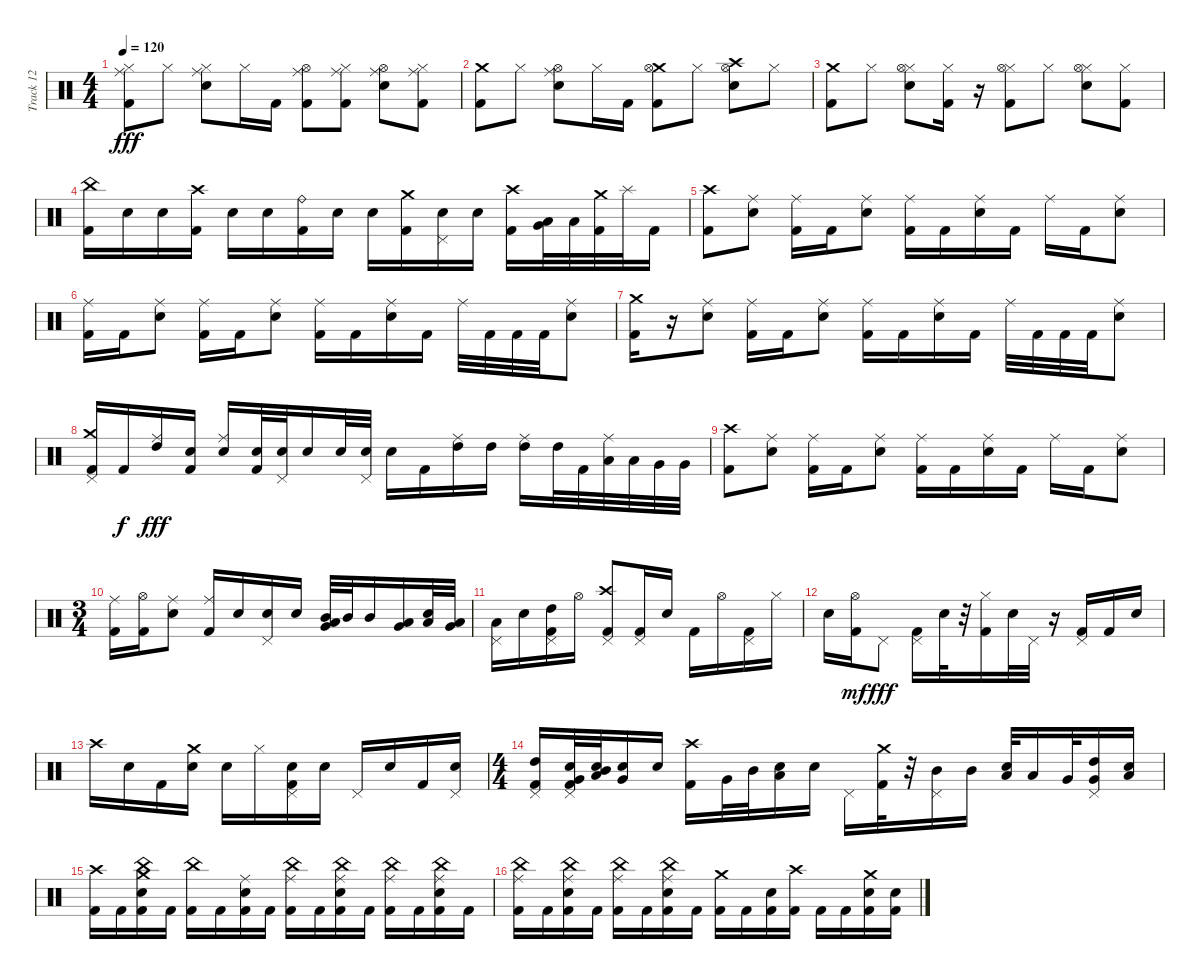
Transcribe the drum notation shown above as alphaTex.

\track ("Track 12" "Track 12") {instrument percussion}
\staff {score}
\articulation defaults
\ts (4 4)
\tempo 120
\clef neutral
\ks c
("Hi-Hat (closed)" "Ride (middle)" "Kick (hit) 2").8{dy fff} "Hi-Hat (closed)".8 ("Hi-Hat (closed)" "Ride (middle)" "Snare (hit) 2").8 "Hi-Hat (closed)".16 "Kick (hit) 2".16 ("Hi-Hat (open)" "Ride (middle)" "Kick (hit) 2").8 ("Hi-Hat (closed)" "Ride (middle)" "Kick (hit) 2").8 ("Hi-Hat (open)" "Ride (middle)" "Snare (hit) 2").8 ("Hi-Hat (closed)" "Ride (middle)" "Kick (hit) 2").8 |
("Crash medium (hit)" "Kick (hit) 2").8 "Hi-Hat (closed)".8 ("Ride (middle)" "Hi-Hat (open)" "Snare (hit) 2").8 "Hi-Hat (closed)".16 "Kick (hit) 2".16 ("Crash medium (hit)" "Hi-Hat (open)" "Kick (hit) 2").8 "Hi-Hat (closed)".8 ("Crash high (hit)" "Hi-Hat (open)" "Snare (hit) 2").8 "Hi-Hat (closed)".8 |
("Crash medium (hit)" "Kick (hit) 2").8 "Hi-Hat (closed)".8 ("Hi-Hat (closed)" "Hi-Hat (open)" "Snare (hit) 2").8 ("Hi-Hat (closed)" "Kick (hit) 2").16 r.16 ("Hi-Hat (closed)" "Hi-Hat (open)" "Kick (hit) 2").8 "Hi-Hat (closed)".8 ("Hi-Hat (closed)" "Hi-Hat (open)" "Snare (hit) 2").8 ("Hi-Hat (closed)" "Kick (hit) 2").8 |
("China (hit)" "Kick (hit) 2").16 "Snare (hit) 2".16 "Snare (hit) 2".16 ("Crash high (hit)" "Kick (hit) 2").16 "Snare (hit) 2".16 "Electric Snare (hit)".16 ("Ride (bell)" "Kick (hit) 2").16 "Snare (hit) 2".16 "Electric Snare (hit)".16 ("Crash medium (hit)" "Kick (hit) 2").16 ("Pedal Hi-Hat (hit)" "Snare (hit) 2").16 "Electric Snare (hit)".16 ("Crash high (hit)" "Kick (hit) 2").16 ("Low Tom (hit)" "Very Low Tom (hit)").32 "Low Floor Tom (hit)".32 ("Crash medium (hit)" "Kick (hit) 2").32 "Splash (hit)".32 "Kick (hit) 2".16 |
("Crash high (hit)" "Kick (hit) 2").8 ("Ride (middle)" "Snare (hit) 2").8 ("Ride (middle)" "Kick (hit) 2").16 "Kick (hit) 2".16 ("Ride (middle)" "Snare (hit) 2").8 ("Ride (middle)" "Kick (hit) 2").16 "Kick (hit) 2".16 ("Ride (middle)" "Snare (hit) 2").16 "Kick (hit) 2".16 "Ride (middle)".16 "Kick (hit) 2".16 ("Ride (middle)" "Snare (hit) 2").8 |
("Ride (middle)" "Kick (hit) 2").16 "Kick (hit) 2".16 ("Ride (middle)" "Snare (hit) 2").8 ("Ride (middle)" "Kick (hit) 2").16 "Kick (hit) 2".16 ("Ride (middle)" "Snare (hit) 2").8 ("Ride (middle)" "Kick (hit) 2").16 "Kick (hit) 2".16 ("Ride (middle)" "Snare (hit) 2").16 "Kick (hit) 2".16 "Ride (middle)".32 "Kick (hit) 2".32 "Kick (hit) 2".32 "Kick (hit) 2".32 ("Ride (middle)" "Snare (hit) 2").8 |
("Crash medium (hit)" "Kick (hit) 2").16 r.16 ("Ride (middle)" "Snare (hit) 2").8 ("Ride (middle)" "Kick (hit) 2").16 "Kick (hit) 2".16 ("Ride (middle)" "Snare (hit) 2").8 ("Ride (middle)" "Kick (hit) 2").16 "Kick (hit) 2".16 ("Ride (middle)" "Snare (hit) 2").16 "Kick (hit) 2".16 "Ride (middle)".32 "Kick (hit) 2".32 "Kick (hit) 2".32 "Kick (hit) 2".32 ("Ride (middle)" "Snare (hit) 2").8 |
("Crash medium (hit)" "Pedal Hi-Hat (hit)" "Kick (hit) 2").16 "Kick (hit) 2".16{dy f} ("Ride (middle)" "High Tom (hit)").16{dy fff} ("Snare (hit) 2" "Kick (hit) 2").16 ("Ride (middle)" "Electric Snare (hit)").16 ("Snare (hit) 2" "Kick (hit) 2").32 ("Pedal Hi-Hat (hit)" "Snare (hit) 2").32 "Snare (hit) 2".16 "Snare (hit) 2".32 ("Pedal Hi-Hat (hit)" "Snare (hit) 2").32 "Snare (hit) 2".16 "Kick (hit) 2".16 ("Ride (middle)" "High Tom (hit)").16 "High Tom (hit)".16 ("Ride (middle)" "High Tom (hit)").16 "High Tom (hit)".32 "Kick (hit) 2".32 ("Ride (middle)" "Low Tom (hit)").32 "Low Tom (hit)".32 "Very Low Tom (hit)".32 "Very Low Tom (hit)".32 |
("Crash high (hit)" "Kick (hit) 2").8 ("Ride (middle)" "Snare (hit) 2").8 ("Ride (middle)" "Kick (hit) 2").16 "Kick (hit) 2".16 ("Ride (middle)" "Snare (hit) 2").8 ("Ride (middle)" "Kick (hit) 2").16 "Kick (hit) 2".16 ("Ride (middle)" "Snare (hit) 2").16 "Kick (hit) 2".16 "Ride (middle)".16 "Kick (hit) 2".16 ("Ride (middle)" "Snare (hit) 2").8 |
\ts (3 4)
("Ride (middle)" "Kick (hit) 2").16 ("Hi-Hat (open)" "Kick (hit) 2").16 ("Ride (middle)" "Snare (hit) 2").8 ("Ride (middle)" "Kick (hit) 2").16 "Electric Snare (hit)".16 ("Pedal Hi-Hat (hit)" "Snare (hit) 2").16 "Electric Snare (hit)".16 ("Very Low Tom (hit)" "Low Floor Tom (hit)" "Mid Tom (hit)").32 "Mid Tom (hit)".32 "Mid Tom (hit)".16 ("Very Low Tom (hit)" "Low Tom (hit)").16 ("Electric Snare (hit)" "Low Floor Tom (hit)").32 ("Low Tom (hit)" "Very Low Tom (hit)").32 |
("Pedal Hi-Hat (hit)" "Low Tom (hit)").16 "Electric Snare (hit)".16 ("Pedal Hi-Hat (hit)" "High Tom (hit)" "Kick (hit) 2").16 "Hi-Hat (open)".16 ("Crash high (hit)" "Pedal Hi-Hat (hit)" "Kick (hit) 2").8 ("Pedal Hi-Hat (hit)" "Kick (hit) 2").16 "Snare (hit) 2".16 "Kick (hit) 2".16 "Hi-Hat (open)".16 ("Pedal Hi-Hat (hit)" "Kick (hit) 2").16 "Hi-Hat (closed)".16 |
"Snare (hit) 2".16 ("Hi-Hat (open)" "Kick (hit) 2").16{dy mf} "Pedal Hi-Hat (hit)".8{dy fff} ("Pedal Hi-Hat (hit)" "Kick (hit) 2").16 "Snare (hit) 2".32 r.32 ("Hi-Hat (closed)" "Kick (hit) 2").16 "Snare (hit) 2".32 "Pedal Hi-Hat (hit)".32 r.16 ("Pedal Hi-Hat (hit)" "Kick (hit) 2").16 "Kick (hit) 2".16 "Electric Snare (hit)".16 |
"Crash high (hit)".16 "Snare (hit) 2".16 "Kick (hit) 2".16 ("Crash medium (hit)" "Snare (hit) 2").16 "Snare (hit) 2".16 "Hi-Hat (closed)".16 ("Pedal Hi-Hat (hit)" "Snare (hit) 2" "Kick (hit) 2").16 "Electric Snare (hit)".16 "Pedal Hi-Hat (hit)".16 "Electric Snare (hit)".16 "Kick (hit) 2".16 ("Pedal Hi-Hat (hit)" "Snare (hit) 2").16 |
\ts (4 4)
("Pedal Hi-Hat (hit)" "High Tom (hit)" "Kick (hit) 2").16 ("Pedal Hi-Hat (hit)" "Very Low Tom (hit)" "Snare (hit) 2" "Kick (hit) 2").32 ("Low Floor Tom (hit)" "Mid Tom (hit)" "Snare (hit) 2").32 ("Very Low Tom (hit)" "Electric Snare (hit)").16 "Electric Snare (hit)".16 ("Crash high (hit)" "Kick (hit) 2").16 "Very Low Tom (hit)".32 "Mid Tom (hit)".32 ("Snare (hit) 2" "Low Floor Tom (hit)").16 "Electric Snare (hit)".16 "Pedal Hi-Hat (hit)".16 ("Crash medium (hit)" "Kick (hit) 2").32 r.32 ("Pedal Hi-Hat (hit)" "Mid Tom (hit)").16 "Mid Tom (hit)".16 ("Snare (hit) 2" "Low Tom (hit)").32 "Low Tom (hit)".16 "Very Low Tom (hit)".32 ("Pedal Hi-Hat (hit)" "High Tom (hit)" "Very Low Tom (hit)").16 ("Snare (hit) 2" "Low Floor Tom (hit)").16 |
("Crash high (hit)" "Kick (hit) 2").16 "Kick (hit) 2".16 ("Crash medium (hit)" "China (hit)" "Electric Snare (hit)" "Kick (hit) 2").16 "Kick (hit) 2".16 ("China (hit)" "Kick (hit) 2").16 "Kick (hit) 2".16 ("Ride (middle)" "Snare (hit) 2" "Kick (hit) 2").16 "Kick (hit) 2".16 ("Ride (middle)" "China (hit)" "Kick (hit) 2").16 "Kick (hit) 2".16 ("Ride (middle)" "China (hit)" "Snare (hit) 2" "Kick (hit) 2").16 "Kick (hit) 2".16 ("Ride (middle)" "China (hit)" "Kick (hit) 2").16 "Kick (hit) 2".16 ("Ride (middle)" "China (hit)" "Snare (hit) 2" "Kick (hit) 2").16 "Kick (hit) 2".16 |
("Ride (middle)" "China (hit)" "Kick (hit) 2").16 "Kick (hit) 2".16 ("Ride (middle)" "China (hit)" "Snare (hit) 2" "Kick (hit) 2").16 "Kick (hit) 2".16 ("Ride (middle)" "China (hit)" "Kick (hit) 2").16 "Kick (hit) 2".16 ("Ride (middle)" "China (hit)" "Snare (hit) 2" "Kick (hit) 2").16 "Kick (hit) 2".16 ("Crash medium (hit)" "Kick (hit) 2").16 "Kick (hit) 2".16 ("Snare (hit) 2" "Kick (hit) 2").16 ("Crash high (hit)" "Kick (hit) 2").16 "Kick (hit) 2".16 "Kick (hit) 2".16 ("Crash medium (hit)" "Snare (hit) 2" "Kick (hit) 2").16 ("Snare (hit) 2" "Kick (hit) 2").16
